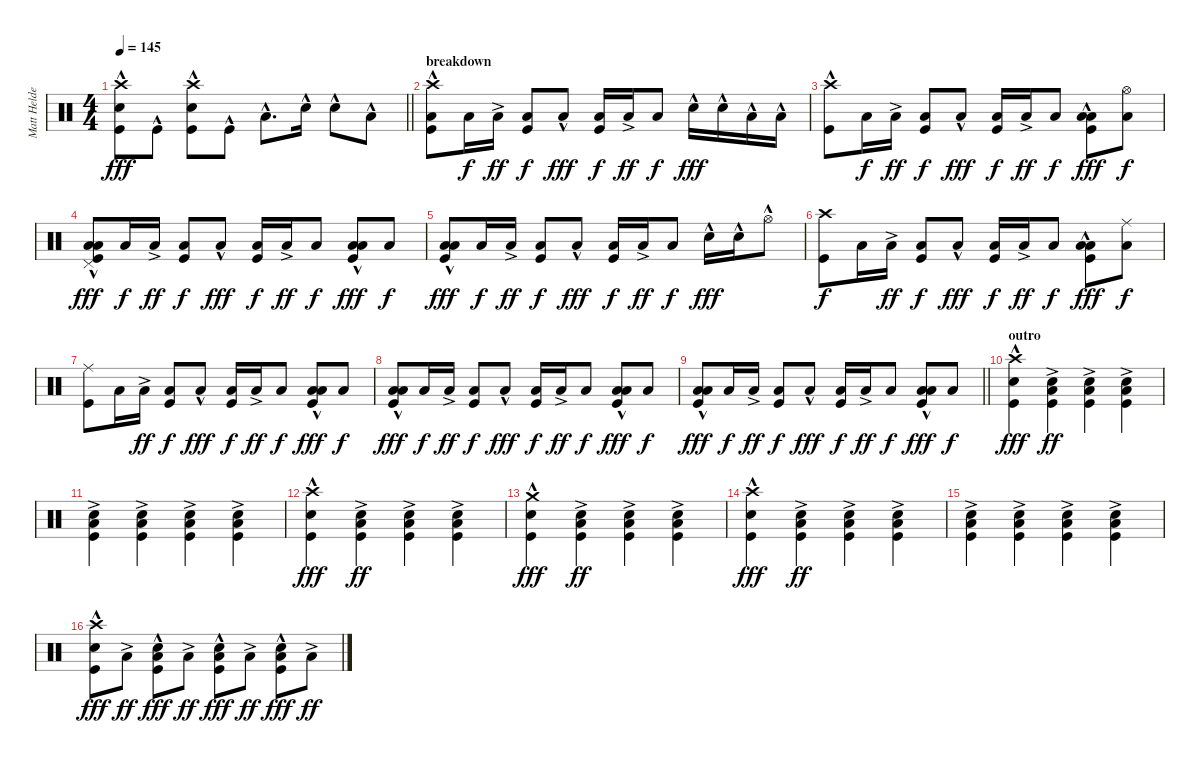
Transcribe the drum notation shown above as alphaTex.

\track ("Matt Helders - Drums" "Matt Helde") {instrument percussion}
\staff {score}
\articulation defaults
\ts (4 4)
\tempo 145
\clef neutral
\barLineRight lightlight
\ks c
("Crash high (hit)"{hac} "Snare (hit) 2"{hac} "Kick (hit)"{hac}).8{dy fff} "Kick (hit)"{hac}.8 ("Crash high (hit)"{hac} "Snare (hit) 2"{hac} "Kick (hit)"{hac}).8 "Kick (hit)"{hac}.8 "Low Tom (hit)"{hac}.8{d} "Snare (hit) 2"{hac}.16 "Snare (hit) 2"{hac}.8 "Low Floor Tom (hit)"{hac}.8 |
\section ("" "breakdown")
("Crash high (hit)"{hac} "Low Floor Tom (hit)"{hac} "Kick (hit)").8 "Low Floor Tom (hit)".16{dy f} "Low Tom (hit)"{ac}.16{dy ff} ("Low Floor Tom (hit)" "Kick (hit)").8{dy f} "Low Floor Tom (hit)"{hac}.8{dy fff} ("Low Floor Tom (hit)" "Kick (hit)").16{dy f} "Low Tom (hit)"{ac}.16{dy ff} "Low Floor Tom (hit)".8{dy f} "Snare (hit) 2"{hac}.16{dy fff} "Snare (hit) 2"{hac}.16 "Low Tom (hit)"{hac}.16 "Low Tom (hit)"{hac}.16 |
("Crash high (hit)"{hac} "Kick (hit)").8 "Low Floor Tom (hit)".16{dy f} "Low Tom (hit)"{ac}.16{dy ff} ("Low Floor Tom (hit)" "Kick (hit)").8{dy f} "Low Floor Tom (hit)"{hac}.8{dy fff} ("Low Floor Tom (hit)" "Kick (hit)").16{dy f} "Low Tom (hit)"{ac}.16{dy ff} "Low Floor Tom (hit)".8{dy f} ("Low Tom (hit)"{hac} "Low Floor Tom (hit)"{hac} "Kick (hit)").8{dy fff} ("Hi-Hat (open)" "Low Floor Tom (hit)").8{dy f} |
("Pedal Hi-Hat (hit)" "Low Tom (hit)"{hac} "Low Floor Tom (hit)"{hac} "Kick (hit)").8{dy fff} "Low Floor Tom (hit)".16{dy f} "Low Tom (hit)"{ac}.16{dy ff} ("Low Floor Tom (hit)" "Kick (hit)").8{dy f} "Low Floor Tom (hit)"{hac}.8{dy fff} ("Low Floor Tom (hit)" "Kick (hit)").16{dy f} "Low Tom (hit)"{ac}.16{dy ff} "Low Floor Tom (hit)".8{dy f} ("Low Tom (hit)"{hac} "Low Floor Tom (hit)"{hac} "Kick (hit)").8{dy fff} "Low Floor Tom (hit)".8{dy f} |
("Low Tom (hit)"{hac} "Low Floor Tom (hit)"{hac} "Kick (hit)").8{dy fff} "Low Floor Tom (hit)".16{dy f} "Low Tom (hit)"{ac}.16{dy ff} ("Low Floor Tom (hit)" "Kick (hit)").8{dy f} "Low Floor Tom (hit)"{hac}.8{dy fff} ("Low Floor Tom (hit)" "Kick (hit)").16{dy f} "Low Tom (hit)"{ac}.16{dy ff} "Low Floor Tom (hit)".8{dy f} "Snare (hit) 2"{hac}.16{dy fff} "Snare (hit) 2"{hac}.16 "Hi-Hat (open)"{hac}.8 |
("Crash high (hit)" "Kick (hit)").8{dy f} "Low Floor Tom (hit)".16 "Low Tom (hit)"{ac}.16{dy ff} ("Low Floor Tom (hit)" "Kick (hit)").8{dy f} "Low Floor Tom (hit)"{hac}.8{dy fff} ("Low Floor Tom (hit)" "Kick (hit)").16{dy f} "Low Tom (hit)"{ac}.16{dy ff} "Low Floor Tom (hit)".8{dy f} ("Low Tom (hit)"{hac} "Low Floor Tom (hit)"{hac} "Kick (hit)").8{dy fff} ("Ride (middle)" "Low Floor Tom (hit)").8{dy f} |
("Ride (middle)" "Kick (hit)").8 "Low Floor Tom (hit)".16 "Low Tom (hit)"{ac}.16{dy ff} ("Low Floor Tom (hit)" "Kick (hit)").8{dy f} "Low Floor Tom (hit)"{hac}.8{dy fff} ("Low Floor Tom (hit)" "Kick (hit)").16{dy f} "Low Tom (hit)"{ac}.16{dy ff} "Low Floor Tom (hit)".8{dy f} ("Low Tom (hit)"{hac} "Low Floor Tom (hit)"{hac} "Kick (hit)").8{dy fff} "Low Floor Tom (hit)".8{dy f} |
("Low Tom (hit)"{hac} "Low Floor Tom (hit)"{hac} "Kick (hit)").8{dy fff} "Low Floor Tom (hit)".16{dy f} "Low Tom (hit)"{ac}.16{dy ff} ("Low Floor Tom (hit)" "Kick (hit)").8{dy f} "Low Floor Tom (hit)"{hac}.8{dy fff} ("Low Floor Tom (hit)" "Kick (hit)").16{dy f} "Low Tom (hit)"{ac}.16{dy ff} "Low Floor Tom (hit)".8{dy f} ("Low Tom (hit)"{hac} "Low Floor Tom (hit)"{hac} "Kick (hit)").8{dy fff} "Low Floor Tom (hit)".8{dy f} |
\barLineRight lightlight
("Low Tom (hit)"{hac} "Low Floor Tom (hit)"{hac} "Kick (hit)").8{dy fff} "Low Floor Tom (hit)".16{dy f} "Low Tom (hit)"{ac}.16{dy ff} ("Low Floor Tom (hit)" "Kick (hit)").8{dy f} "Low Floor Tom (hit)"{hac}.8{dy fff} ("Low Floor Tom (hit)" "Kick (hit)").16{dy f} "Low Tom (hit)"{ac}.16{dy ff} "Low Floor Tom (hit)".8{dy f} ("Low Tom (hit)"{hac} "Low Floor Tom (hit)"{hac} "Kick (hit)").8{dy fff} "Low Floor Tom (hit)".8{dy f} |
\section ("" "outro")
("Crash high (hit)"{hac} "Snare (hit) 2"{hac} "Kick (hit)"{hac}).4{dy fff} ("Snare (hit) 2"{ac} "Low Floor Tom (hit)"{ac} "Kick (hit)"{ac}).4{dy ff} ("Snare (hit) 2"{ac} "Low Floor Tom (hit)"{ac} "Kick (hit)"{ac}).4 ("Snare (hit) 2"{ac} "Low Floor Tom (hit)"{ac} "Kick (hit)"{ac}).4 |
("Snare (hit) 2"{ac} "Low Floor Tom (hit)"{ac} "Kick (hit)"{ac}).4 ("Snare (hit) 2"{ac} "Low Floor Tom (hit)"{ac} "Kick (hit)"{ac}).4 ("Snare (hit) 2"{ac} "Low Floor Tom (hit)"{ac} "Kick (hit)"{ac}).4 ("Snare (hit) 2"{ac} "Low Floor Tom (hit)"{ac} "Kick (hit)"{ac}).4 |
("Crash high (hit)"{hac} "Snare (hit) 2"{hac} "Kick (hit)"{hac}).4{dy fff} ("Snare (hit) 2"{ac} "Low Floor Tom (hit)"{ac} "Kick (hit)"{ac}).4{dy ff} ("Snare (hit) 2"{ac} "Low Floor Tom (hit)"{ac} "Kick (hit)"{ac}).4 ("Snare (hit) 2"{ac} "Low Floor Tom (hit)"{ac} "Kick (hit)"{ac}).4 |
("Crash medium (hit)"{hac} "Snare (hit) 2"{hac} "Kick (hit)"{hac}).4{dy fff} ("Snare (hit) 2"{ac} "Low Floor Tom (hit)"{ac} "Kick (hit)"{ac}).4{dy ff} ("Snare (hit) 2"{ac} "Low Floor Tom (hit)"{ac} "Kick (hit)"{ac}).4 ("Snare (hit) 2"{ac} "Low Floor Tom (hit)"{ac} "Kick (hit)"{ac}).4 |
("Crash high (hit)"{hac} "Snare (hit) 2"{hac} "Kick (hit)"{hac}).4{dy fff} ("Snare (hit) 2"{ac} "Low Floor Tom (hit)"{ac} "Kick (hit)"{ac}).4{dy ff} ("Snare (hit) 2"{ac} "Low Floor Tom (hit)"{ac} "Kick (hit)"{ac}).4 ("Snare (hit) 2"{ac} "Low Floor Tom (hit)"{ac} "Kick (hit)"{ac}).4 |
("Snare (hit) 2"{ac} "Low Floor Tom (hit)"{ac} "Kick (hit)"{ac}).4 ("Snare (hit) 2"{ac} "Low Floor Tom (hit)"{ac} "Kick (hit)"{ac}).4 ("Snare (hit) 2"{ac} "Low Floor Tom (hit)"{ac} "Kick (hit)"{ac}).4 ("Snare (hit) 2"{ac} "Low Floor Tom (hit)"{ac} "Kick (hit)"{ac}).4 |
("Crash high (hit)"{hac} "Snare (hit) 2"{hac} "Kick (hit)"{hac}).8{dy fff} "Low Floor Tom (hit)"{ac}.8{dy ff} ("Snare (hit) 2"{hac} "Low Floor Tom (hit)"{hac} "Kick (hit)"{hac}).8{dy fff} "Low Floor Tom (hit)"{ac}.8{dy ff} ("Snare (hit) 2"{hac} "Low Floor Tom (hit)"{hac} "Kick (hit)"{hac}).8{dy fff} "Low Floor Tom (hit)"{ac}.8{dy ff} ("Snare (hit) 2"{hac} "Low Floor Tom (hit)"{hac} "Kick (hit)"{hac}).8{dy fff} "Low Floor Tom (hit)"{ac}.8{dy ff}
